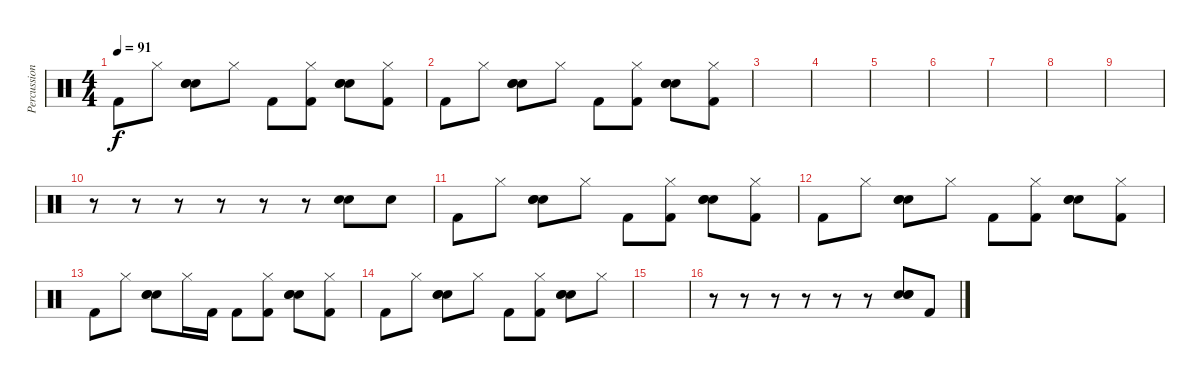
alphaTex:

\track ("Percussion" "Percussion") {instrument percussion}
\staff {score}
\articulation defaults
\ts (4 4)
\tempo 91
\clef neutral
\ks c "Kick (hit) 2".8{dy f} "Hi-Hat (closed)".8
("Hand Clap (hit)" "Electric Snare (hit)" "Snare (hit) 2").8 "Hi-Hat (closed)".8 "Kick (hit) 2".8 ("Hi-Hat (closed)" "Kick (hit) 2").8 ("Hand Clap (hit)" "Electric Snare (hit)" "Snare (hit) 2").8 ("Hi-Hat (closed)" "Kick (hit) 2").8 |
"Kick (hit) 2".8 "Hi-Hat (closed)".8 ("Hand Clap (hit)" "Electric Snare (hit)" "Snare (hit) 2").8 "Hi-Hat (closed)".8 "Kick (hit) 2".8 ("Hi-Hat (closed)" "Kick (hit) 2").8 ("Hand Clap (hit)" "Electric Snare (hit)" "Snare (hit) 2").8 ("Hi-Hat (closed)" "Kick (hit) 2").8 |
|
|
|
|
|
|
|
r.8 r.8 r.8 r.8 r.8 r.8 ("Hand Clap (hit)" "Snare (hit) 2").8 "Electric Snare (hit)".8 |
"Kick (hit) 2".8 "Hi-Hat (closed)".8 ("Hand Clap (hit)" "Electric Snare (hit)" "Snare (hit) 2").8 "Hi-Hat (closed)".8 "Kick (hit) 2".8 ("Hi-Hat (closed)" "Kick (hit) 2").8 ("Hand Clap (hit)" "Electric Snare (hit)" "Snare (hit) 2").8 ("Hi-Hat (closed)" "Kick (hit) 2").8 |
"Kick (hit) 2".8 "Hi-Hat (closed)".8 ("Hand Clap (hit)" "Electric Snare (hit)" "Snare (hit) 2").8 "Hi-Hat (closed)".8 "Kick (hit) 2".8 ("Hi-Hat (closed)" "Kick (hit) 2").8 ("Hand Clap (hit)" "Electric Snare (hit)" "Snare (hit) 2").8 ("Hi-Hat (closed)" "Kick (hit) 2").8 |
"Kick (hit) 2".8 "Hi-Hat (closed)".8 ("Hand Clap (hit)" "Electric Snare (hit)" "Snare (hit) 2").8 "Hi-Hat (closed)".16 "Kick (hit) 2".16 "Kick (hit) 2".8 ("Hi-Hat (closed)" "Kick (hit) 2").8 ("Hand Clap (hit)" "Electric Snare (hit)" "Snare (hit) 2").8 ("Hi-Hat (closed)" "Kick (hit) 2").8 |
"Kick (hit) 2".8 "Hi-Hat (closed)".8 ("Hand Clap (hit)" "Electric Snare (hit)" "Snare (hit) 2").8 "Hi-Hat (closed)".8 "Kick (hit) 2".8 ("Hi-Hat (closed)" "Kick (hit) 2").8 ("Hand Clap (hit)" "Electric Snare (hit)" "Snare (hit) 2").8 "Hi-Hat (closed)".8 |
|
r.8 r.8 r.8 r.8 r.8 r.8 ("Hand Clap (hit)" "Electric Snare (hit)" "Snare (hit) 2").8 "Kick (hit) 2".8
